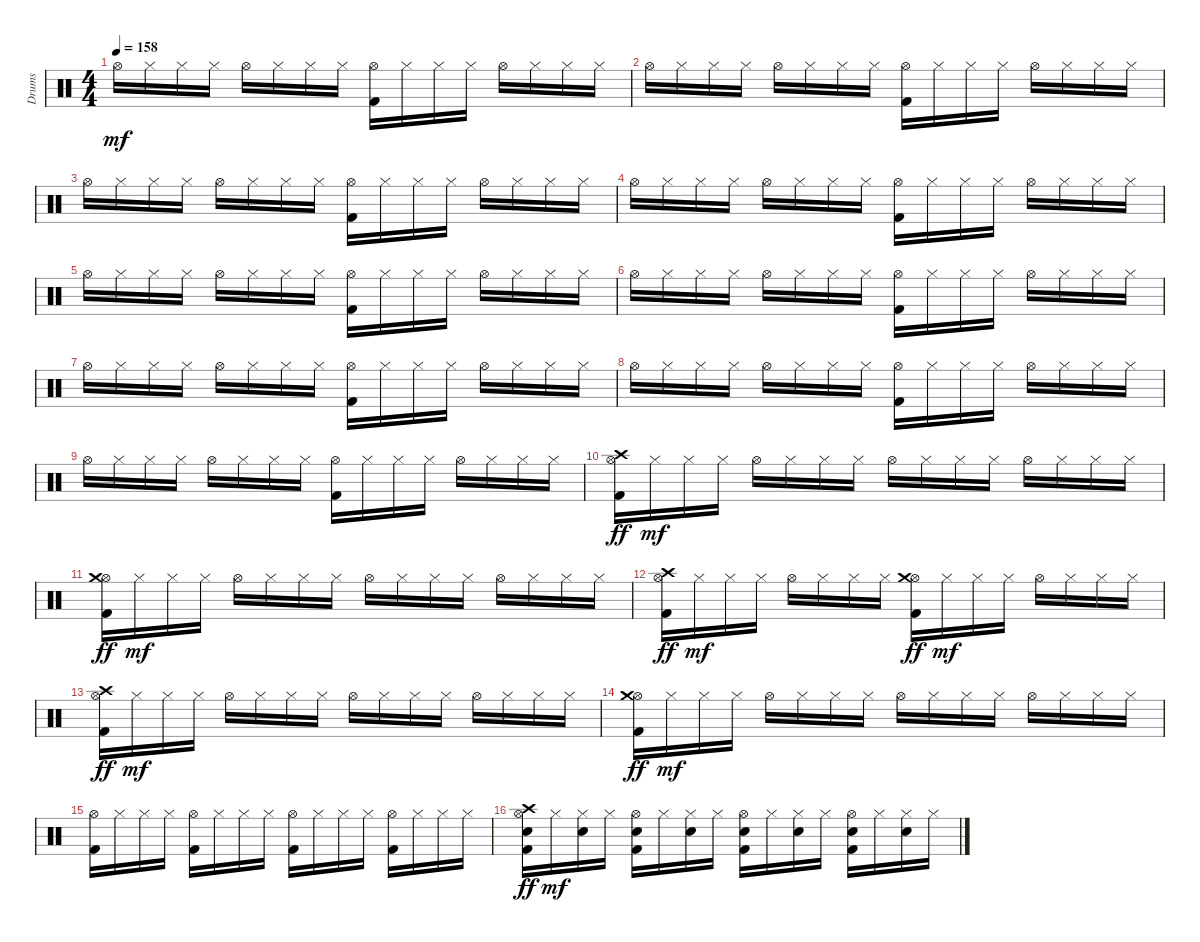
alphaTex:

\track ("Drums" "Drums") {instrument percussion}
\staff {score}
\articulation defaults
\ts (4 4)
\tempo 158
\clef neutral
\ks c "Hi-Hat (open)".16{dy mf} "Hi-Hat (closed)".16 "Hi-Hat (closed)".16 "Hi-Hat (closed)".16 "Hi-Hat (open)".16 "Hi-Hat (closed)".16 "Hi-Hat (closed)".16 "Hi-Hat (closed)".16
("Kick (hit) 2" "Hi-Hat (open)").16 "Hi-Hat (closed)".16 "Hi-Hat (closed)".16 "Hi-Hat (closed)".16 "Hi-Hat (open)".16 "Hi-Hat (closed)".16 "Hi-Hat (closed)".16 "Hi-Hat (closed)".16 |
"Hi-Hat (open)".16 "Hi-Hat (closed)".16 "Hi-Hat (closed)".16 "Hi-Hat (closed)".16 "Hi-Hat (open)".16 "Hi-Hat (closed)".16 "Hi-Hat (closed)".16 "Hi-Hat (closed)".16 ("Kick (hit) 2" "Hi-Hat (open)").16 "Hi-Hat (closed)".16 "Hi-Hat (closed)".16 "Hi-Hat (closed)".16 "Hi-Hat (open)".16 "Hi-Hat (closed)".16 "Hi-Hat (closed)".16 "Hi-Hat (closed)".16 |
"Hi-Hat (open)".16 "Hi-Hat (closed)".16 "Hi-Hat (closed)".16 "Hi-Hat (closed)".16 "Hi-Hat (open)".16 "Hi-Hat (closed)".16 "Hi-Hat (closed)".16 "Hi-Hat (closed)".16 ("Kick (hit) 2" "Hi-Hat (open)").16 "Hi-Hat (closed)".16 "Hi-Hat (closed)".16 "Hi-Hat (closed)".16 "Hi-Hat (open)".16 "Hi-Hat (closed)".16 "Hi-Hat (closed)".16 "Hi-Hat (closed)".16 |
"Hi-Hat (open)".16 "Hi-Hat (closed)".16 "Hi-Hat (closed)".16 "Hi-Hat (closed)".16 "Hi-Hat (open)".16 "Hi-Hat (closed)".16 "Hi-Hat (closed)".16 "Hi-Hat (closed)".16 ("Kick (hit) 2" "Hi-Hat (open)").16 "Hi-Hat (closed)".16 "Hi-Hat (closed)".16 "Hi-Hat (closed)".16 "Hi-Hat (open)".16 "Hi-Hat (closed)".16 "Hi-Hat (closed)".16 "Hi-Hat (closed)".16 |
"Hi-Hat (open)".16 "Hi-Hat (closed)".16 "Hi-Hat (closed)".16 "Hi-Hat (closed)".16 "Hi-Hat (open)".16 "Hi-Hat (closed)".16 "Hi-Hat (closed)".16 "Hi-Hat (closed)".16 ("Kick (hit) 2" "Hi-Hat (open)").16 "Hi-Hat (closed)".16 "Hi-Hat (closed)".16 "Hi-Hat (closed)".16 "Hi-Hat (open)".16 "Hi-Hat (closed)".16 "Hi-Hat (closed)".16 "Hi-Hat (closed)".16 |
"Hi-Hat (open)".16 "Hi-Hat (closed)".16 "Hi-Hat (closed)".16 "Hi-Hat (closed)".16 "Hi-Hat (open)".16 "Hi-Hat (closed)".16 "Hi-Hat (closed)".16 "Hi-Hat (closed)".16 ("Kick (hit) 2" "Hi-Hat (open)").16 "Hi-Hat (closed)".16 "Hi-Hat (closed)".16 "Hi-Hat (closed)".16 "Hi-Hat (open)".16 "Hi-Hat (closed)".16 "Hi-Hat (closed)".16 "Hi-Hat (closed)".16 |
"Hi-Hat (open)".16 "Hi-Hat (closed)".16 "Hi-Hat (closed)".16 "Hi-Hat (closed)".16 "Hi-Hat (open)".16 "Hi-Hat (closed)".16 "Hi-Hat (closed)".16 "Hi-Hat (closed)".16 ("Kick (hit) 2" "Hi-Hat (open)").16 "Hi-Hat (closed)".16 "Hi-Hat (closed)".16 "Hi-Hat (closed)".16 "Hi-Hat (open)".16 "Hi-Hat (closed)".16 "Hi-Hat (closed)".16 "Hi-Hat (closed)".16 |
"Hi-Hat (open)".16 "Hi-Hat (closed)".16 "Hi-Hat (closed)".16 "Hi-Hat (closed)".16 "Hi-Hat (open)".16 "Hi-Hat (closed)".16 "Hi-Hat (closed)".16 "Hi-Hat (closed)".16 ("Kick (hit) 2" "Hi-Hat (open)").16 "Hi-Hat (closed)".16 "Hi-Hat (closed)".16 "Hi-Hat (closed)".16 "Hi-Hat (open)".16 "Hi-Hat (closed)".16 "Hi-Hat (closed)".16 "Hi-Hat (closed)".16 |
"Hi-Hat (open)".16 "Hi-Hat (closed)".16 "Hi-Hat (closed)".16 "Hi-Hat (closed)".16 "Hi-Hat (open)".16 "Hi-Hat (closed)".16 "Hi-Hat (closed)".16 "Hi-Hat (closed)".16 ("Kick (hit) 2" "Hi-Hat (open)").16 "Hi-Hat (closed)".16 "Hi-Hat (closed)".16 "Hi-Hat (closed)".16 "Hi-Hat (open)".16 "Hi-Hat (closed)".16 "Hi-Hat (closed)".16 "Hi-Hat (closed)".16 |
("Kick (hit) 2" "Hi-Hat (open)" "Crash high (hit)").16{dy ff} "Hi-Hat (closed)".16{dy mf} "Hi-Hat (closed)".16 "Hi-Hat (closed)".16 "Hi-Hat (open)".16 "Hi-Hat (closed)".16 "Hi-Hat (closed)".16 "Hi-Hat (closed)".16 "Hi-Hat (open)".16 "Hi-Hat (closed)".16 "Hi-Hat (closed)".16 "Hi-Hat (closed)".16 "Hi-Hat (open)".16 "Hi-Hat (closed)".16 "Hi-Hat (closed)".16 "Hi-Hat (closed)".16 |
("Kick (hit) 2" "Hi-Hat (open)" "Crash medium (hit)").16{dy ff} "Hi-Hat (closed)".16{dy mf} "Hi-Hat (closed)".16 "Hi-Hat (closed)".16 "Hi-Hat (open)".16 "Hi-Hat (closed)".16 "Hi-Hat (closed)".16 "Hi-Hat (closed)".16 "Hi-Hat (open)".16 "Hi-Hat (closed)".16 "Hi-Hat (closed)".16 "Hi-Hat (closed)".16 "Hi-Hat (open)".16 "Hi-Hat (closed)".16 "Hi-Hat (closed)".16 "Hi-Hat (closed)".16 |
("Kick (hit) 2" "Hi-Hat (open)" "Crash high (hit)").16{dy ff} "Hi-Hat (closed)".16{dy mf} "Hi-Hat (closed)".16 "Hi-Hat (closed)".16 "Hi-Hat (open)".16 "Hi-Hat (closed)".16 "Hi-Hat (closed)".16 "Hi-Hat (closed)".16 ("Kick (hit) 2" "Hi-Hat (open)" "Crash medium (hit)").16{dy ff} "Hi-Hat (closed)".16{dy mf} "Hi-Hat (closed)".16 "Hi-Hat (closed)".16 "Hi-Hat (open)".16 "Hi-Hat (closed)".16 "Hi-Hat (closed)".16 "Hi-Hat (closed)".16 |
("Kick (hit) 2" "Hi-Hat (open)" "Crash high (hit)").16{dy ff} "Hi-Hat (closed)".16{dy mf} "Hi-Hat (closed)".16 "Hi-Hat (closed)".16 "Hi-Hat (open)".16 "Hi-Hat (closed)".16 "Hi-Hat (closed)".16 "Hi-Hat (closed)".16 "Hi-Hat (open)".16 "Hi-Hat (closed)".16 "Hi-Hat (closed)".16 "Hi-Hat (closed)".16 "Hi-Hat (open)".16 "Hi-Hat (closed)".16 "Hi-Hat (closed)".16 "Hi-Hat (closed)".16 |
("Kick (hit) 2" "Hi-Hat (open)" "Crash medium (hit)").16{dy ff} "Hi-Hat (closed)".16{dy mf} "Hi-Hat (closed)".16 "Hi-Hat (closed)".16 "Hi-Hat (open)".16 "Hi-Hat (closed)".16 "Hi-Hat (closed)".16 "Hi-Hat (closed)".16 "Hi-Hat (open)".16 "Hi-Hat (closed)".16 "Hi-Hat (closed)".16 "Hi-Hat (closed)".16 "Hi-Hat (open)".16 "Hi-Hat (closed)".16 "Hi-Hat (closed)".16 "Hi-Hat (closed)".16 |
("Kick (hit) 2" "Hi-Hat (open)").16 "Hi-Hat (closed)".16 "Hi-Hat (closed)".16 "Hi-Hat (closed)".16 ("Kick (hit) 2" "Hi-Hat (open)").16 "Hi-Hat (closed)".16 "Hi-Hat (closed)".16 "Hi-Hat (closed)".16 ("Kick (hit) 2" "Hi-Hat (open)").16 "Hi-Hat (closed)".16 "Hi-Hat (closed)".16 "Hi-Hat (closed)".16 ("Kick (hit) 2" "Hi-Hat (open)").16 "Hi-Hat (closed)".16 "Hi-Hat (closed)".16 "Hi-Hat (closed)".16 |
("Kick (hit) 2" "Snare (hit) 2" "Hi-Hat (open)" "Crash high (hit)").16{dy ff} "Hi-Hat (closed)".16{dy mf} ("Snare (hit) 2" "Hi-Hat (closed)").16 "Hi-Hat (closed)".16 ("Kick (hit) 2" "Snare (hit) 2" "Hi-Hat (open)").16 "Hi-Hat (closed)".16 ("Snare (hit) 2" "Hi-Hat (closed)").16 "Hi-Hat (closed)".16 ("Kick (hit) 2" "Snare (hit) 2" "Hi-Hat (open)").16 "Hi-Hat (closed)".16 ("Snare (hit) 2" "Hi-Hat (closed)").16 "Hi-Hat (closed)".16 ("Kick (hit) 2" "Snare (hit) 2" "Hi-Hat (open)").16 "Hi-Hat (closed)".16 ("Snare (hit) 2" "Hi-Hat (closed)").16 "Hi-Hat (closed)".16
